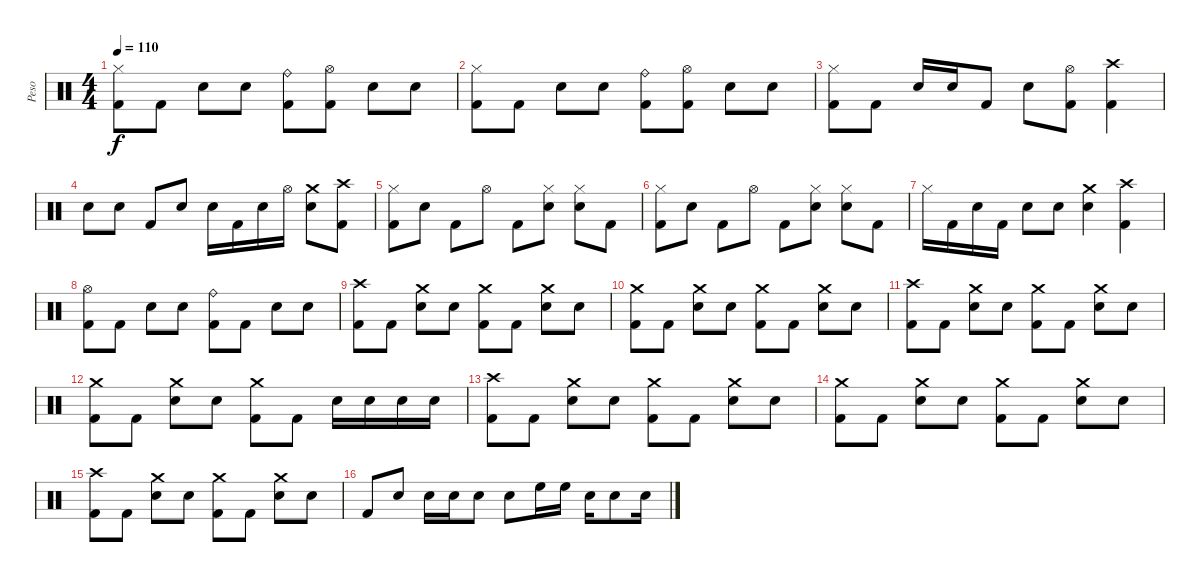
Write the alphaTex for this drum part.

\track ("Peso" "Peso") {instrument percussion}
\staff {score}
\articulation defaults
\ts (4 4)
\tempo 110
\clef neutral
\ks c
("Hi-Hat (closed)" "Kick (hit) 2").8{dy f} "Kick (hit) 2".8 "Snare (hit) 2".8 "Snare (hit) 2".8 ("Ride (bell)" "Kick (hit) 2").8 ("Hi-Hat (open)" "Kick (hit) 2").8 "Snare (hit)"{x}.8 "Snare (hit)"{x}.8 |
("Hi-Hat (closed)" "Kick (hit) 2").8 "Kick (hit) 2".8 "Snare (hit) 2".8 "Snare (hit) 2".8 ("Ride (bell)" "Kick (hit) 2").8 ("Hi-Hat (open)" "Kick (hit) 2").8 "Snare (hit)"{x}.8 "Snare (hit)"{x}.8 |
("Hi-Hat (closed)" "Kick (hit) 2").8 "Kick (hit) 2".8 "Snare (hit) 2".16 "Snare (hit) 2".16 "Kick (hit) 2".8 "Snare (hit) 2".8 ("Hi-Hat (open)" "Kick (hit) 2").8 ("Crash high (hit)" "Kick (hit) 2").4 |
"Snare (hit) 2".8 "Snare (hit) 2".8 "Kick (hit) 2".8 "Snare (hit) 2".8 "Snare (hit) 2".16 "Kick (hit) 2".16 "Snare (hit) 2"{x}.16 "Hi-Hat (open)"{x}.16 ("Crash medium (hit)" "Snare (hit) 2").8 ("Crash high (hit)" "Kick (hit) 2").8 |
("Hi-Hat (closed)" "Kick (hit) 2").8 "Snare (hit) 2".8 "Kick (hit) 2".8 "Hi-Hat (open)".8 "Kick (hit) 2".8 ("Hi-Hat (closed)" "Snare (hit) 2").8 ("Hi-Hat (closed)" "Snare (hit) 2").8 "Kick (hit) 2".8 |
("Hi-Hat (closed)" "Kick (hit) 2").8 "Snare (hit) 2".8 "Kick (hit) 2".8 "Hi-Hat (open)".8 "Kick (hit) 2".8 ("Hi-Hat (closed)" "Snare (hit) 2").8 ("Hi-Hat (closed)" "Snare (hit) 2").8 "Kick (hit) 2".8 |
"Hi-Hat (closed)".16 "Kick (hit) 2".16 "Snare (hit) 2".16 "Kick (hit) 2".16 "Snare (hit) 2".8 "Snare (hit) 2".8 ("Crash medium (hit)" "Snare (hit) 2").4 ("Crash high (hit)" "Kick (hit) 2").4 |
("Hi-Hat (open)" "Kick (hit) 2").8 "Kick (hit) 2".8 "Snare (hit) 2".8 "Snare (hit) 2".8 ("Ride (bell)" "Kick (hit) 2").8 "Kick (hit) 2".8 "Snare (hit) 2".8 "Snare (hit) 2".8 |
("Crash high (hit)" "Kick (hit) 2").8 "Kick (hit) 2".8 ("Crash medium (hit)" "Snare (hit) 2").8 "Snare (hit) 2".8 ("Crash medium (hit)" "Kick (hit) 2").8 "Kick (hit) 2".8 ("Crash medium (hit)" "Snare (hit) 2").8 "Snare (hit) 2".8 |
("Crash medium (hit)" "Kick (hit) 2").8 "Kick (hit) 2".8 ("Crash medium (hit)" "Snare (hit) 2").8 "Snare (hit) 2".8 ("Crash medium (hit)" "Kick (hit) 2").8 "Kick (hit) 2".8 ("Crash medium (hit)" "Snare (hit) 2").8 "Snare (hit) 2".8 |
("Crash high (hit)" "Kick (hit) 2").8 "Kick (hit) 2".8 ("Crash medium (hit)" "Snare (hit) 2").8 "Snare (hit) 2".8 ("Crash medium (hit)" "Kick (hit) 2").8 "Kick (hit) 2".8 ("Crash medium (hit)" "Snare (hit) 2").8 "Snare (hit) 2".8 |
("Crash medium (hit)" "Kick (hit) 2").8 "Kick (hit) 2".8 ("Crash medium (hit)" "Snare (hit) 2").8 "Snare (hit) 2".8 ("Crash medium (hit)" "Kick (hit) 2").8 "Kick (hit) 2".8 "Snare (hit) 2".16 "Snare (hit) 2".16 "Snare (hit) 2".16 "Snare (hit) 2".16 |
("Crash high (hit)" "Kick (hit) 2").8 "Kick (hit) 2".8 ("Crash medium (hit)" "Snare (hit) 2").8 "Snare (hit) 2".8 ("Crash medium (hit)" "Kick (hit) 2").8 "Kick (hit) 2".8 ("Crash medium (hit)" "Snare (hit) 2").8 "Snare (hit) 2".8 |
("Crash medium (hit)" "Kick (hit) 2").8 "Kick (hit) 2".8 ("Crash medium (hit)" "Snare (hit) 2").8 "Snare (hit) 2".8 ("Crash medium (hit)" "Kick (hit) 2").8 "Kick (hit) 2".8 ("Crash medium (hit)" "Snare (hit) 2").8 "Snare (hit) 2".8 |
("Crash high (hit)" "Kick (hit) 2").8 "Kick (hit) 2".8 ("Crash medium (hit)" "Snare (hit) 2").8 "Snare (hit) 2".8 ("Crash medium (hit)" "Kick (hit) 2").8 "Kick (hit) 2".8 ("Crash medium (hit)" "Snare (hit) 2").8 "Snare (hit) 2".8 |
"Kick (hit) 2".8 "Snare (hit) 2".8 "Snare (hit) 2".16 "Snare (hit) 2".16 "Snare (hit) 2".8 "Snare (hit) 2".8 "High Floor Tom (hit)".16 "High Floor Tom (hit)".16 "Snare (hit) 2".16 "Snare (hit) 2".8 "Snare (hit) 2".16
